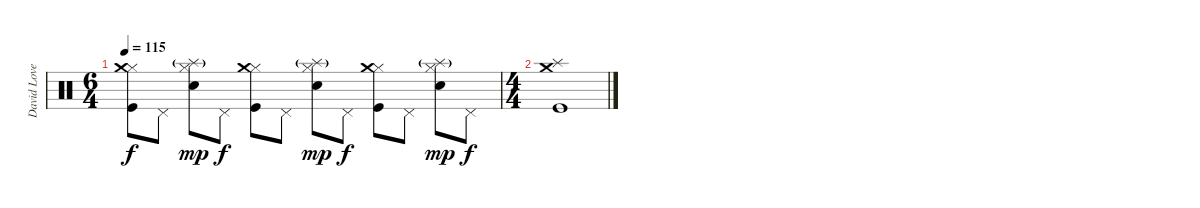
\track ("David Lovering" "David Love") {instrument percussion}
\staff {score}
\articulation defaults
\ts (6 4)
\tempo 115
\clef neutral
\ks c
("Hi-Hat (closed)" "Crash medium (hit)" "Kick (hit)").8{dy f} "Pedal Hi-Hat (hit)".8 ("Hi-Hat (closed)" "Splash (hit)"{g} "Snare (hit) 2").8{dy mp} "Pedal Hi-Hat (hit)".8{dy f} ("Hi-Hat (closed)" "Crash medium (hit)" "Kick (hit)").8 "Pedal Hi-Hat (hit)".8 ("Hi-Hat (closed)" "Splash (hit)"{g} "Snare (hit) 2").8{dy mp} "Pedal Hi-Hat (hit)".8{dy f} ("Hi-Hat (closed)" "Crash medium (hit)" "Kick (hit)").8 "Pedal Hi-Hat (hit)".8 ("Hi-Hat (closed)" "Splash (hit)"{g} "Snare (hit) 2").8{dy mp} "Pedal Hi-Hat (hit)".8{dy f} |
\ts (4 4)
("Crash medium (hit)" "Splash (hit)" "Kick (hit)").1
